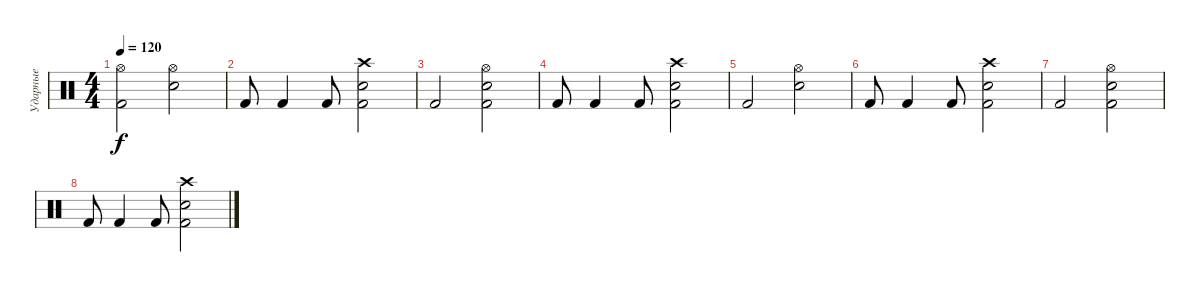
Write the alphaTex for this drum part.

\track ("Ударные" "Ударные") {instrument percussion}
\staff {score}
\articulation defaults
\ts (4 4)
\tempo 120
\clef neutral
\ks c
("Hi-Hat (open)" "Kick (hit) 2").2{dy f} ("Hi-Hat (open)" "Snare (hit) 2").2 |
"Kick (hit) 2".8 "Kick (hit) 2".4 "Kick (hit) 2".8 ("Crash high (hit)" "Snare (hit) 2" "Kick (hit) 2").2 |
"Kick (hit) 2".2 ("Hi-Hat (open)" "Snare (hit) 2" "Kick (hit) 2").2 |
"Kick (hit) 2".8 "Kick (hit) 2".4 "Kick (hit) 2".8 ("Crash high (hit)" "Snare (hit) 2" "Kick (hit) 2").2 |
"Kick (hit) 2".2 ("Hi-Hat (open)" "Snare (hit) 2").2 |
"Kick (hit) 2".8 "Kick (hit) 2".4 "Kick (hit) 2".8 ("Crash high (hit)" "Snare (hit) 2" "Kick (hit) 2").2 |
"Kick (hit) 2".2 ("Hi-Hat (open)" "Snare (hit) 2" "Kick (hit) 2").2 |
"Kick (hit) 2".8 "Kick (hit) 2".4 "Kick (hit) 2".8 ("Crash high (hit)" "Snare (hit) 2" "Kick (hit) 2").2
